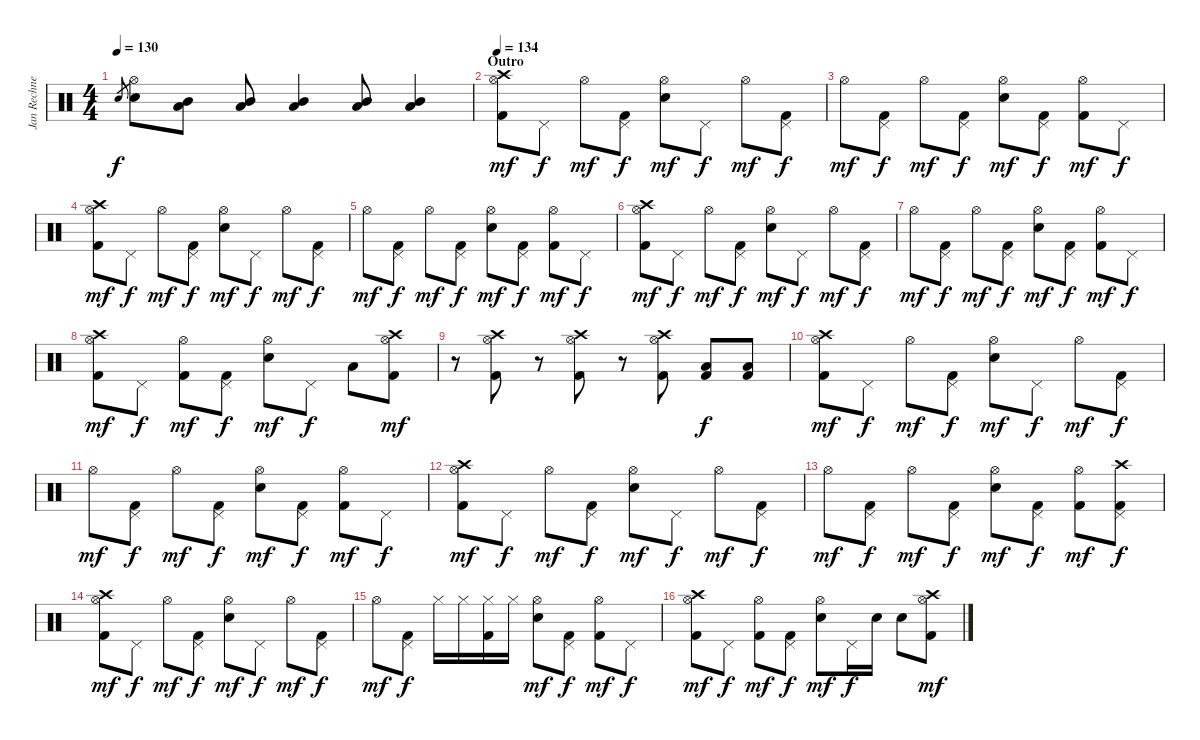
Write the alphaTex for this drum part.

\track ("Jan Rechnerger" "Jan Rechne") {instrument percussion}
\staff {score}
\articulation defaults
\ts (4 4)
\tempo 130
\clef neutral
\ks c "Snare (hit) 2".8{gr dy f}
("Hi-Hat (open)" "Snare (hit) 2").8 ("Low Tom (hit)" "Mid Tom (hit)").8 ("Low Tom (hit)" "Mid Tom (hit)").8 ("Low Tom (hit)" "Mid Tom (hit)").4 ("Low Tom (hit)" "Mid Tom (hit)").8 ("Low Tom (hit)" "Mid Tom (hit)").4 |
\section ("" "Outro")
\tempo 134
("Crash high (hit)" "Hi-Hat (open)" "Kick (hit) 2").8{dy mf} "Pedal Hi-Hat (hit)".8{dy f} "Hi-Hat (open)".8{dy mf} ("Pedal Hi-Hat (hit)" "Kick (hit) 2").8{dy f} ("Hi-Hat (open)" "Snare (hit) 2").8{dy mf} "Pedal Hi-Hat (hit)".8{dy f} "Hi-Hat (open)".8{dy mf} ("Pedal Hi-Hat (hit)" "Kick (hit) 2").8{dy f} |
"Hi-Hat (open)".8{dy mf} ("Pedal Hi-Hat (hit)" "Kick (hit) 2").8{dy f} "Hi-Hat (open)".8{dy mf} ("Pedal Hi-Hat (hit)" "Kick (hit) 2").8{dy f} ("Hi-Hat (open)" "Snare (hit) 2").8{dy mf} ("Pedal Hi-Hat (hit)" "Kick (hit) 2").8{dy f} ("Hi-Hat (open)" "Kick (hit) 2").8{dy mf} "Pedal Hi-Hat (hit)".8{dy f} |
("Crash high (hit)" "Hi-Hat (open)" "Kick (hit) 2").8{dy mf} "Pedal Hi-Hat (hit)".8{dy f} "Hi-Hat (open)".8{dy mf} ("Pedal Hi-Hat (hit)" "Kick (hit) 2").8{dy f} ("Hi-Hat (open)" "Snare (hit) 2").8{dy mf} "Pedal Hi-Hat (hit)".8{dy f} "Hi-Hat (open)".8{dy mf} ("Pedal Hi-Hat (hit)" "Kick (hit) 2").8{dy f} |
"Hi-Hat (open)".8{dy mf} ("Pedal Hi-Hat (hit)" "Kick (hit) 2").8{dy f} "Hi-Hat (open)".8{dy mf} ("Pedal Hi-Hat (hit)" "Kick (hit) 2").8{dy f} ("Hi-Hat (open)" "Snare (hit) 2").8{dy mf} ("Pedal Hi-Hat (hit)" "Kick (hit) 2").8{dy f} ("Hi-Hat (open)" "Kick (hit) 2").8{dy mf} "Pedal Hi-Hat (hit)".8{dy f} |
("Crash high (hit)" "Hi-Hat (open)" "Kick (hit) 2").8{dy mf} "Pedal Hi-Hat (hit)".8{dy f} "Hi-Hat (open)".8{dy mf} ("Pedal Hi-Hat (hit)" "Kick (hit) 2").8{dy f} ("Hi-Hat (open)" "Snare (hit) 2").8{dy mf} "Pedal Hi-Hat (hit)".8{dy f} "Hi-Hat (open)".8{dy mf} ("Pedal Hi-Hat (hit)" "Kick (hit) 2").8{dy f} |
"Hi-Hat (open)".8{dy mf} ("Pedal Hi-Hat (hit)" "Kick (hit) 2").8{dy f} "Hi-Hat (open)".8{dy mf} ("Pedal Hi-Hat (hit)" "Kick (hit) 2").8{dy f} ("Hi-Hat (open)" "Snare (hit) 2").8{dy mf} ("Pedal Hi-Hat (hit)" "Kick (hit) 2").8{dy f} ("Hi-Hat (open)" "Kick (hit) 2").8{dy mf} "Pedal Hi-Hat (hit)".8{dy f} |
("Crash high (hit)" "Hi-Hat (open)" "Kick (hit) 2").8{dy mf} "Pedal Hi-Hat (hit)".8{dy f} ("Hi-Hat (open)" "Kick (hit) 2").8{dy mf} ("Pedal Hi-Hat (hit)" "Kick (hit) 2").8{dy f} ("Hi-Hat (open)" "Snare (hit) 2").8{dy mf} "Pedal Hi-Hat (hit)".8{dy f} "Low Tom (hit)".8 ("Crash high (hit)" "Hi-Hat (open)" "Kick (hit) 2").8{dy mf} |
r.8 ("Crash high (hit)" "Hi-Hat (open)" "Kick (hit) 2").8 r.8 ("Crash high (hit)" "Hi-Hat (open)" "Kick (hit) 2").8 r.8 ("Crash high (hit)" "Hi-Hat (open)" "Kick (hit) 2").8 ("Low Tom (hit)" "Kick (hit) 2").8{dy f} ("Low Tom (hit)" "Kick (hit) 2").8 |
("Crash high (hit)" "Hi-Hat (open)" "Kick (hit) 2").8{dy mf} "Pedal Hi-Hat (hit)".8{dy f} "Hi-Hat (open)".8{dy mf} ("Pedal Hi-Hat (hit)" "Kick (hit) 2").8{dy f} ("Hi-Hat (open)" "Snare (hit) 2").8{dy mf} "Pedal Hi-Hat (hit)".8{dy f} "Hi-Hat (open)".8{dy mf} ("Pedal Hi-Hat (hit)" "Kick (hit) 2").8{dy f} |
"Hi-Hat (open)".8{dy mf} ("Pedal Hi-Hat (hit)" "Kick (hit) 2").8{dy f} "Hi-Hat (open)".8{dy mf} ("Pedal Hi-Hat (hit)" "Kick (hit) 2").8{dy f} ("Hi-Hat (open)" "Snare (hit) 2").8{dy mf} ("Pedal Hi-Hat (hit)" "Kick (hit) 2").8{dy f} ("Hi-Hat (open)" "Kick (hit) 2").8{dy mf} "Pedal Hi-Hat (hit)".8{dy f} |
("Crash high (hit)" "Hi-Hat (open)" "Kick (hit) 2").8{dy mf} "Pedal Hi-Hat (hit)".8{dy f} "Hi-Hat (open)".8{dy mf} ("Pedal Hi-Hat (hit)" "Kick (hit) 2").8{dy f} ("Hi-Hat (open)" "Snare (hit) 2").8{dy mf} "Pedal Hi-Hat (hit)".8{dy f} "Hi-Hat (open)".8{dy mf} ("Pedal Hi-Hat (hit)" "Kick (hit) 2").8{dy f} |
"Hi-Hat (open)".8{dy mf} ("Pedal Hi-Hat (hit)" "Kick (hit) 2").8{dy f} "Hi-Hat (open)".8{dy mf} ("Pedal Hi-Hat (hit)" "Kick (hit) 2").8{dy f} ("Hi-Hat (open)" "Snare (hit) 2").8{dy mf} ("Pedal Hi-Hat (hit)" "Kick (hit) 2").8{dy f} ("Hi-Hat (open)" "Kick (hit) 2").8{dy mf} ("Crash high (hit)" "Pedal Hi-Hat (hit)" "Kick (hit) 2").8{dy f} |
("Crash high (hit)" "Hi-Hat (open)" "Kick (hit) 2").8{dy mf} "Pedal Hi-Hat (hit)".8{dy f} "Hi-Hat (open)".8{dy mf} ("Pedal Hi-Hat (hit)" "Kick (hit) 2").8{dy f} ("Hi-Hat (open)" "Snare (hit) 2").8{dy mf} "Pedal Hi-Hat (hit)".8{dy f} "Hi-Hat (open)".8{dy mf} ("Pedal Hi-Hat (hit)" "Kick (hit) 2").8{dy f} |
"Hi-Hat (open)".8{dy mf} ("Pedal Hi-Hat (hit)" "Kick (hit) 2").8{dy f} "Hi-Hat (closed)".16 "Hi-Hat (closed)".16 ("Hi-Hat (closed)" "Kick (hit) 2").16 "Hi-Hat (closed)".16 ("Hi-Hat (open)" "Snare (hit) 2").8{dy mf} ("Pedal Hi-Hat (hit)" "Kick (hit) 2").8{dy f} ("Hi-Hat (open)" "Kick (hit) 2").8{dy mf} "Pedal Hi-Hat (hit)".8{dy f} |
("Crash high (hit)" "Hi-Hat (open)" "Kick (hit) 2").8{dy mf} "Pedal Hi-Hat (hit)".8{dy f} ("Hi-Hat (open)" "Kick (hit) 2").8{dy mf} ("Pedal Hi-Hat (hit)" "Kick (hit) 2").8{dy f} ("Hi-Hat (open)" "Snare (hit) 2").8{dy mf} "Pedal Hi-Hat (hit)".16{dy f} "Snare (hit) 2".16 "Snare (hit) 2".8 ("Crash high (hit)" "Hi-Hat (open)" "Kick (hit) 2").8{dy mf}
